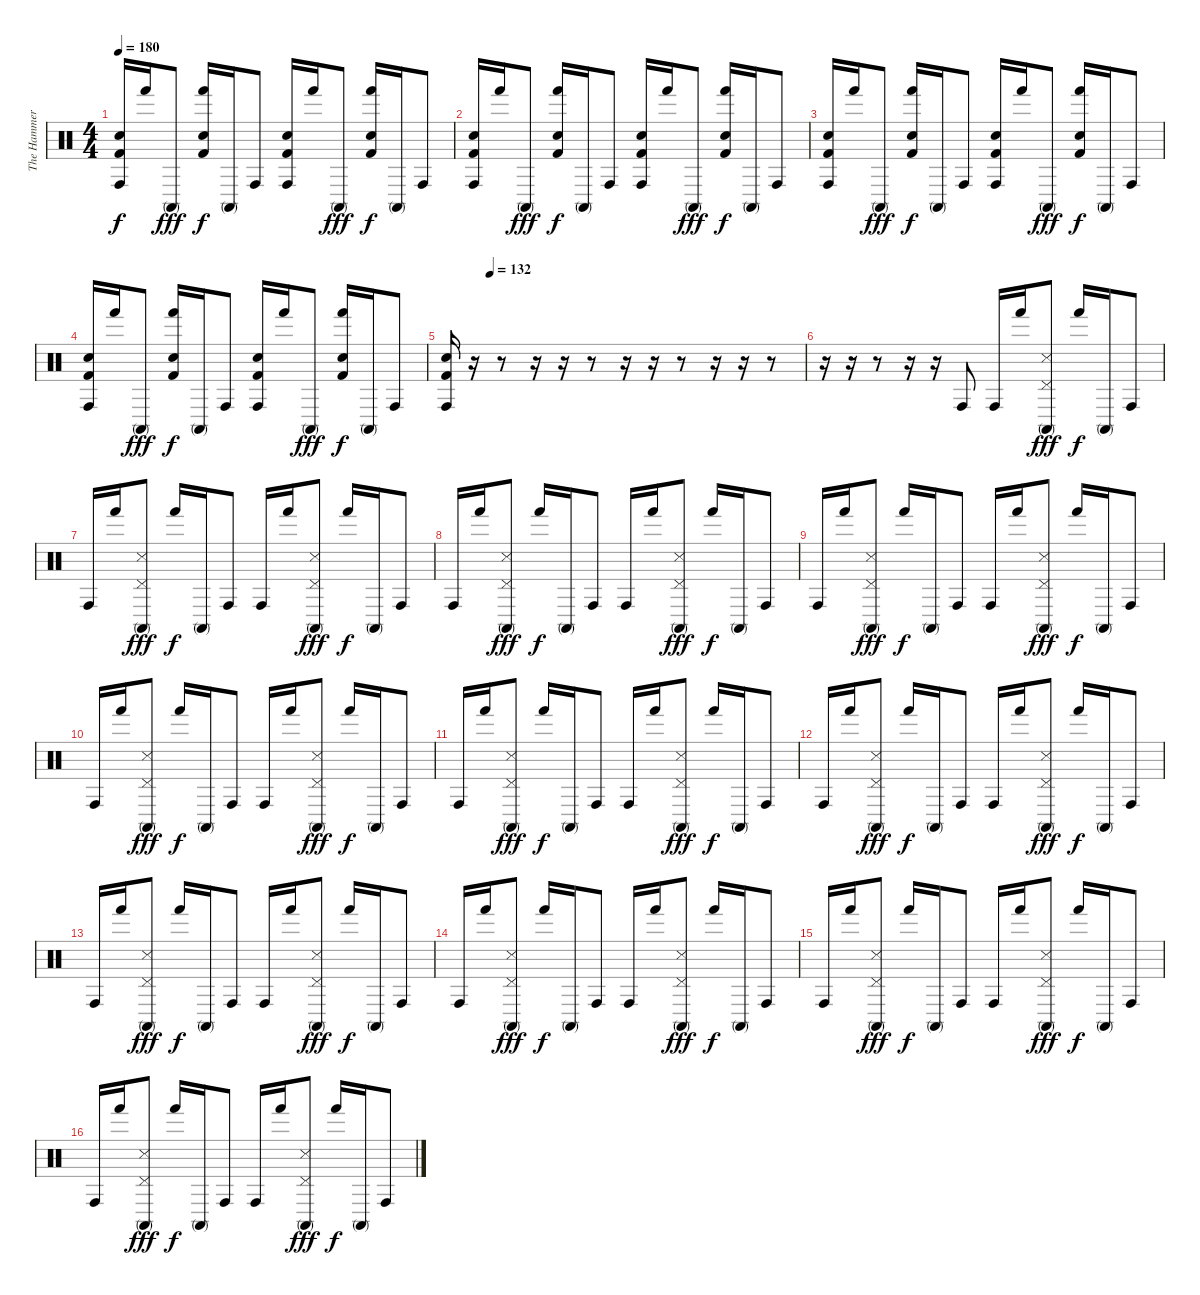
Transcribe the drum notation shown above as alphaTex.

\track ("The Hammer" "The Hammer") {instrument percussion}
\staff {score}
\articulation defaults
\ts (4 4)
\tempo 180
\clef neutral
\ks c
("Conga high (hit)" "Hand Clap (hit)" "Kick (hit) 2").16{dy f} "Hand (hit)".16 "Conga high (mute)".8{dy fff} ("Hand (hit)" "Hand Clap (hit)" "Kick (hit) 2").16{dy f} "Conga high (mute)".16 "Conga high (hit)".8 ("Conga high (hit)" "Hand Clap (hit)" "Kick (hit) 2").16 "Hand (hit)".16 "Conga high (mute)".8{dy fff} ("Hand (hit)" "Hand Clap (hit)" "Kick (hit) 2").16{dy f} "Conga high (mute)".16 "Conga high (hit)".8 |
("Conga high (hit)" "Hand Clap (hit)" "Kick (hit) 2").16 "Hand (hit)".16 "Conga high (mute)".8{dy fff} ("Hand (hit)" "Hand Clap (hit)" "Kick (hit) 2").16{dy f} "Conga high (mute)".16 "Conga high (hit)".8 ("Conga high (hit)" "Hand Clap (hit)" "Kick (hit) 2").16 "Hand (hit)".16 "Conga high (mute)".8{dy fff} ("Hand (hit)" "Hand Clap (hit)" "Kick (hit) 2").16{dy f} "Conga high (mute)".16 "Conga high (hit)".8 |
("Conga high (hit)" "Hand Clap (hit)" "Kick (hit) 2").16 "Hand (hit)".16 "Conga high (mute)".8{dy fff} ("Hand (hit)" "Hand Clap (hit)" "Kick (hit) 2").16{dy f} "Conga high (mute)".16 "Conga high (hit)".8 ("Conga high (hit)" "Hand Clap (hit)" "Kick (hit) 2").16 "Hand (hit)".16 "Conga high (mute)".8{dy fff} ("Hand (hit)" "Hand Clap (hit)" "Kick (hit) 2").16{dy f} "Conga high (mute)".16 "Conga high (hit)".8 |
("Conga high (hit)" "Hand Clap (hit)" "Kick (hit) 2").16 "Hand (hit)".16 "Conga high (mute)".8{dy fff} ("Hand (hit)" "Hand Clap (hit)" "Kick (hit) 2").16{dy f} "Conga high (mute)".16 "Conga high (hit)".8 ("Conga high (hit)" "Hand Clap (hit)" "Kick (hit) 2").16 "Hand (hit)".16 "Conga high (mute)".8{dy fff} ("Hand (hit)" "Hand Clap (hit)" "Kick (hit) 2").16{dy f} "Conga high (mute)".16 "Conga high (hit)".8 |
\tempo (132 0.125)
("Conga high (hit)" "Hand Clap (hit)" "Kick (hit) 2").16 r.16 r.8 r.16 r.16 r.8 r.16 r.16 r.8 r.16 r.16 r.8 |
r.16 r.16 r.8 r.16 r.16 "Conga high (hit)".8 "Conga high (hit)".16 "Hand (hit)".16 ("Conga high (mute)" "Metronome (hit)" "Pedal Hi-Hat (hit)").8{dy fff} "Hand (hit)".16{dy f} "Conga high (mute)".16 "Conga high (hit)".8 |
"Conga high (hit)".16 "Hand (hit)".16 ("Conga high (mute)" "Metronome (hit)" "Pedal Hi-Hat (hit)").8{dy fff} "Hand (hit)".16{dy f} "Conga high (mute)".16 "Conga high (hit)".8 "Conga high (hit)".16 "Hand (hit)".16 ("Conga high (mute)" "Metronome (hit)" "Pedal Hi-Hat (hit)").8{dy fff} "Hand (hit)".16{dy f} "Conga high (mute)".16 "Conga high (hit)".8 |
"Conga high (hit)".16 "Hand (hit)".16 ("Conga high (mute)" "Metronome (hit)" "Pedal Hi-Hat (hit)").8{dy fff} "Hand (hit)".16{dy f} "Conga high (mute)".16 "Conga high (hit)".8 "Conga high (hit)".16 "Hand (hit)".16 ("Conga high (mute)" "Metronome (hit)" "Pedal Hi-Hat (hit)").8{dy fff} "Hand (hit)".16{dy f} "Conga high (mute)".16 "Conga high (hit)".8 |
"Conga high (hit)".16 "Hand (hit)".16 ("Conga high (mute)" "Metronome (hit)" "Pedal Hi-Hat (hit)").8{dy fff} "Hand (hit)".16{dy f} "Conga high (mute)".16 "Conga high (hit)".8 "Conga high (hit)".16 "Hand (hit)".16 ("Conga high (mute)" "Metronome (hit)" "Pedal Hi-Hat (hit)").8{dy fff} "Hand (hit)".16{dy f} "Conga high (mute)".16 "Conga high (hit)".8 |
"Conga high (hit)".16 "Hand (hit)".16 ("Conga high (mute)" "Metronome (hit)" "Pedal Hi-Hat (hit)").8{dy fff} "Hand (hit)".16{dy f} "Conga high (mute)".16 "Conga high (hit)".8 "Conga high (hit)".16 "Hand (hit)".16 ("Conga high (mute)" "Metronome (hit)" "Pedal Hi-Hat (hit)").8{dy fff} "Hand (hit)".16{dy f} "Conga high (mute)".16 "Conga high (hit)".8 |
"Conga high (hit)".16 "Hand (hit)".16 ("Conga high (mute)" "Metronome (hit)" "Pedal Hi-Hat (hit)").8{dy fff} "Hand (hit)".16{dy f} "Conga high (mute)".16 "Conga high (hit)".8 "Conga high (hit)".16 "Hand (hit)".16 ("Conga high (mute)" "Metronome (hit)" "Pedal Hi-Hat (hit)").8{dy fff} "Hand (hit)".16{dy f} "Conga high (mute)".16 "Conga high (hit)".8 |
"Conga high (hit)".16 "Hand (hit)".16 ("Conga high (mute)" "Metronome (hit)" "Pedal Hi-Hat (hit)").8{dy fff} "Hand (hit)".16{dy f} "Conga high (mute)".16 "Conga high (hit)".8 "Conga high (hit)".16 "Hand (hit)".16 ("Conga high (mute)" "Metronome (hit)" "Pedal Hi-Hat (hit)").8{dy fff} "Hand (hit)".16{dy f} "Conga high (mute)".16 "Conga high (hit)".8 |
"Conga high (hit)".16 "Hand (hit)".16 ("Conga high (mute)" "Metronome (hit)" "Pedal Hi-Hat (hit)").8{dy fff} "Hand (hit)".16{dy f} "Conga high (mute)".16 "Conga high (hit)".8 "Conga high (hit)".16 "Hand (hit)".16 ("Conga high (mute)" "Metronome (hit)" "Pedal Hi-Hat (hit)").8{dy fff} "Hand (hit)".16{dy f} "Conga high (mute)".16 "Conga high (hit)".8 |
"Conga high (hit)".16 "Hand (hit)".16 ("Conga high (mute)" "Metronome (hit)" "Pedal Hi-Hat (hit)").8{dy fff} "Hand (hit)".16{dy f} "Conga high (mute)".16 "Conga high (hit)".8 "Conga high (hit)".16 "Hand (hit)".16 ("Conga high (mute)" "Metronome (hit)" "Pedal Hi-Hat (hit)").8{dy fff} "Hand (hit)".16{dy f} "Conga high (mute)".16 "Conga high (hit)".8 |
"Conga high (hit)".16 "Hand (hit)".16 ("Conga high (mute)" "Metronome (hit)" "Pedal Hi-Hat (hit)").8{dy fff} "Hand (hit)".16{dy f} "Conga high (mute)".16 "Conga high (hit)".8 "Conga high (hit)".16 "Hand (hit)".16 ("Conga high (mute)" "Metronome (hit)" "Pedal Hi-Hat (hit)").8{dy fff} "Hand (hit)".16{dy f} "Conga high (mute)".16 "Conga high (hit)".8 |
"Conga high (hit)".16 "Hand (hit)".16 ("Conga high (mute)" "Metronome (hit)" "Pedal Hi-Hat (hit)").8{dy fff} "Hand (hit)".16{dy f} "Conga high (mute)".16 "Conga high (hit)".8 "Conga high (hit)".16 "Hand (hit)".16 ("Conga high (mute)" "Metronome (hit)" "Pedal Hi-Hat (hit)").8{dy fff} "Hand (hit)".16{dy f} "Conga high (mute)".16 "Conga high (hit)".8
